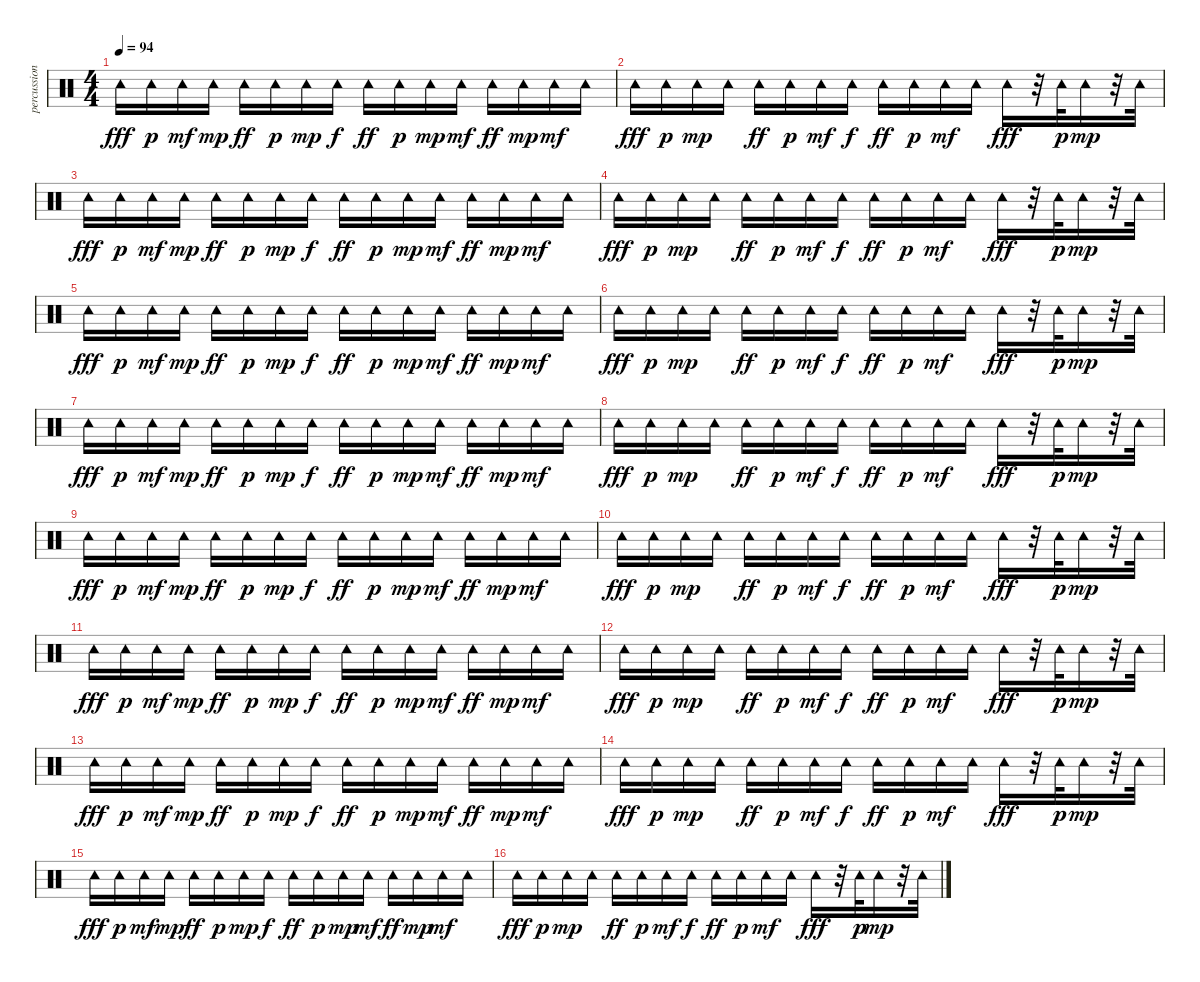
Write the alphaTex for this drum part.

\track ("percussion" "percussion") {instrument percussion}
\staff {score}
\articulation defaults
\ts (4 4)
\tempo 94
\clef neutral
\ks c "Tambourine (hit)".16{dy fff} "Tambourine (hit)".16{dy p} "Tambourine (hit)".16{dy mf} "Tambourine (hit)".16{dy mp} "Tambourine (hit)".16{dy ff} "Tambourine (hit)".16{dy p} "Tambourine (hit)".16{dy mp} "Tambourine (hit)".16{dy f} "Tambourine (hit)".16{dy ff} "Tambourine (hit)".16{dy p} "Tambourine (hit)".16{dy mp} "Tambourine (hit)".16{dy mf} "Tambourine (hit)".16{dy ff} "Tambourine (hit)".16{dy mp} "Tambourine (hit)".16{dy mf} "Tambourine (hit)".16
|
"Tambourine (hit)".16{dy fff} "Tambourine (hit)".16{dy p} "Tambourine (hit)".16{dy mp} "Tambourine (hit)".16 "Tambourine (hit)".16{dy ff} "Tambourine (hit)".16{dy p} "Tambourine (hit)".16{dy mf} "Tambourine (hit)".16{dy f} "Tambourine (hit)".16{dy ff} "Tambourine (hit)".16{dy p} "Tambourine (hit)".16{dy mf} "Tambourine (hit)".16 "Tambourine (hit)".16{dy fff} r.32 "Tambourine (hit)".32{dy p} "Tambourine (hit)".16{dy mp} r.32 "Tambourine (hit)".32 |
"Tambourine (hit)".16{dy fff} "Tambourine (hit)".16{dy p} "Tambourine (hit)".16{dy mf} "Tambourine (hit)".16{dy mp} "Tambourine (hit)".16{dy ff} "Tambourine (hit)".16{dy p} "Tambourine (hit)".16{dy mp} "Tambourine (hit)".16{dy f} "Tambourine (hit)".16{dy ff} "Tambourine (hit)".16{dy p} "Tambourine (hit)".16{dy mp} "Tambourine (hit)".16{dy mf} "Tambourine (hit)".16{dy ff} "Tambourine (hit)".16{dy mp} "Tambourine (hit)".16{dy mf} "Tambourine (hit)".16 |
"Tambourine (hit)".16{dy fff} "Tambourine (hit)".16{dy p} "Tambourine (hit)".16{dy mp} "Tambourine (hit)".16 "Tambourine (hit)".16{dy ff} "Tambourine (hit)".16{dy p} "Tambourine (hit)".16{dy mf} "Tambourine (hit)".16{dy f} "Tambourine (hit)".16{dy ff} "Tambourine (hit)".16{dy p} "Tambourine (hit)".16{dy mf} "Tambourine (hit)".16 "Tambourine (hit)".16{dy fff} r.32 "Tambourine (hit)".32{dy p} "Tambourine (hit)".16{dy mp} r.32 "Tambourine (hit)".32 |
"Tambourine (hit)".16{dy fff} "Tambourine (hit)".16{dy p} "Tambourine (hit)".16{dy mf} "Tambourine (hit)".16{dy mp} "Tambourine (hit)".16{dy ff} "Tambourine (hit)".16{dy p} "Tambourine (hit)".16{dy mp} "Tambourine (hit)".16{dy f} "Tambourine (hit)".16{dy ff} "Tambourine (hit)".16{dy p} "Tambourine (hit)".16{dy mp} "Tambourine (hit)".16{dy mf} "Tambourine (hit)".16{dy ff} "Tambourine (hit)".16{dy mp} "Tambourine (hit)".16{dy mf} "Tambourine (hit)".16 |
"Tambourine (hit)".16{dy fff} "Tambourine (hit)".16{dy p} "Tambourine (hit)".16{dy mp} "Tambourine (hit)".16 "Tambourine (hit)".16{dy ff} "Tambourine (hit)".16{dy p} "Tambourine (hit)".16{dy mf} "Tambourine (hit)".16{dy f} "Tambourine (hit)".16{dy ff} "Tambourine (hit)".16{dy p} "Tambourine (hit)".16{dy mf} "Tambourine (hit)".16 "Tambourine (hit)".16{dy fff} r.32 "Tambourine (hit)".32{dy p} "Tambourine (hit)".16{dy mp} r.32 "Tambourine (hit)".32 |
"Tambourine (hit)".16{dy fff} "Tambourine (hit)".16{dy p} "Tambourine (hit)".16{dy mf} "Tambourine (hit)".16{dy mp} "Tambourine (hit)".16{dy ff} "Tambourine (hit)".16{dy p} "Tambourine (hit)".16{dy mp} "Tambourine (hit)".16{dy f} "Tambourine (hit)".16{dy ff} "Tambourine (hit)".16{dy p} "Tambourine (hit)".16{dy mp} "Tambourine (hit)".16{dy mf} "Tambourine (hit)".16{dy ff} "Tambourine (hit)".16{dy mp} "Tambourine (hit)".16{dy mf} "Tambourine (hit)".16 |
"Tambourine (hit)".16{dy fff} "Tambourine (hit)".16{dy p} "Tambourine (hit)".16{dy mp} "Tambourine (hit)".16 "Tambourine (hit)".16{dy ff} "Tambourine (hit)".16{dy p} "Tambourine (hit)".16{dy mf} "Tambourine (hit)".16{dy f} "Tambourine (hit)".16{dy ff} "Tambourine (hit)".16{dy p} "Tambourine (hit)".16{dy mf} "Tambourine (hit)".16 "Tambourine (hit)".16{dy fff} r.32 "Tambourine (hit)".32{dy p} "Tambourine (hit)".16{dy mp} r.32 "Tambourine (hit)".32 |
"Tambourine (hit)".16{dy fff} "Tambourine (hit)".16{dy p} "Tambourine (hit)".16{dy mf} "Tambourine (hit)".16{dy mp} "Tambourine (hit)".16{dy ff} "Tambourine (hit)".16{dy p} "Tambourine (hit)".16{dy mp} "Tambourine (hit)".16{dy f} "Tambourine (hit)".16{dy ff} "Tambourine (hit)".16{dy p} "Tambourine (hit)".16{dy mp} "Tambourine (hit)".16{dy mf} "Tambourine (hit)".16{dy ff} "Tambourine (hit)".16{dy mp} "Tambourine (hit)".16{dy mf} "Tambourine (hit)".16 |
"Tambourine (hit)".16{dy fff} "Tambourine (hit)".16{dy p} "Tambourine (hit)".16{dy mp} "Tambourine (hit)".16 "Tambourine (hit)".16{dy ff} "Tambourine (hit)".16{dy p} "Tambourine (hit)".16{dy mf} "Tambourine (hit)".16{dy f} "Tambourine (hit)".16{dy ff} "Tambourine (hit)".16{dy p} "Tambourine (hit)".16{dy mf} "Tambourine (hit)".16 "Tambourine (hit)".16{dy fff} r.32 "Tambourine (hit)".32{dy p} "Tambourine (hit)".16{dy mp} r.32 "Tambourine (hit)".32 |
"Tambourine (hit)".16{dy fff} "Tambourine (hit)".16{dy p} "Tambourine (hit)".16{dy mf} "Tambourine (hit)".16{dy mp} "Tambourine (hit)".16{dy ff volume 15} "Tambourine (hit)".16{dy p} "Tambourine (hit)".16{dy mp volume 16} "Tambourine (hit)".16{dy f} "Tambourine (hit)".16{dy ff} "Tambourine (hit)".16{dy p} "Tambourine (hit)".16{dy mp} "Tambourine (hit)".16{dy mf} "Tambourine (hit)".16{dy ff volume 15} "Tambourine (hit)".16{dy mp volume 15} "Tambourine (hit)".16{dy mf} "Tambourine (hit)".16 |
"Tambourine (hit)".16{dy fff volume 15} "Tambourine (hit)".16{dy p} "Tambourine (hit)".16{dy mp} "Tambourine (hit)".16 "Tambourine (hit)".16{dy ff volume 14} "Tambourine (hit)".16{dy p volume 14} "Tambourine (hit)".16{dy mf volume 13} "Tambourine (hit)".16{dy f volume 13} "Tambourine (hit)".16{dy ff volume 13} "Tambourine (hit)".16{dy p volume 12} "Tambourine (hit)".16{dy mf volume 12} "Tambourine (hit)".16 "Tambourine (hit)".16{dy fff} r.32 "Tambourine (hit)".32{dy p volume 12} "Tambourine (hit)".16{dy mp volume 11} r.32 "Tambourine (hit)".32{volume 11} |
"Tambourine (hit)".16{dy fff} "Tambourine (hit)".16{dy p} "Tambourine (hit)".16{dy mf} "Tambourine (hit)".16{dy mp volume 10} "Tambourine (hit)".16{dy ff volume 10} "Tambourine (hit)".16{dy p volume 9} "Tambourine (hit)".16{dy mp volume 9} "Tambourine (hit)".16{dy f volume 8} "Tambourine (hit)".16{dy ff} "Tambourine (hit)".16{dy p} "Tambourine (hit)".16{dy mp volume 8} "Tambourine (hit)".16{dy mf volume 8} "Tambourine (hit)".16{dy ff} "Tambourine (hit)".16{dy mp volume 8} "Tambourine (hit)".16{dy mf} "Tambourine (hit)".16 |
"Tambourine (hit)".16{dy fff} "Tambourine (hit)".16{dy p volume 8} "Tambourine (hit)".16{dy mp volume 7} "Tambourine (hit)".16 "Tambourine (hit)".16{dy ff volume 7} "Tambourine (hit)".16{dy p} "Tambourine (hit)".16{dy mf} "Tambourine (hit)".16{dy f} "Tambourine (hit)".16{dy ff} "Tambourine (hit)".16{dy p} "Tambourine (hit)".16{dy mf volume 7} "Tambourine (hit)".16 "Tambourine (hit)".16{dy fff volume 7} r.32 "Tambourine (hit)".32{dy p} "Tambourine (hit)".16{dy mp} r.32 "Tambourine (hit)".32 |
"Tambourine (hit)".16{dy fff volume 7} "Tambourine (hit)".16{dy p volume 7} "Tambourine (hit)".16{dy mf volume 6} "Tambourine (hit)".16{dy mp} "Tambourine (hit)".16{dy ff} "Tambourine (hit)".16{dy p volume 6} "Tambourine (hit)".16{dy mp} "Tambourine (hit)".16{dy f volume 6} "Tambourine (hit)".16{dy ff} "Tambourine (hit)".16{dy p volume 6} "Tambourine (hit)".16{dy mp volume 6} "Tambourine (hit)".16{dy mf} "Tambourine (hit)".16{dy ff volume 6} "Tambourine (hit)".16{dy mp volume 5} "Tambourine (hit)".16{dy mf volume 6} "Tambourine (hit)".16{volume 5} |
"Tambourine (hit)".16{dy fff} "Tambourine (hit)".16{dy p volume 4} "Tambourine (hit)".16{dy mp} "Tambourine (hit)".16 "Tambourine (hit)".16{dy ff volume 4} "Tambourine (hit)".16{dy p volume 4} "Tambourine (hit)".16{dy mf} "Tambourine (hit)".16{dy f} "Tambourine (hit)".16{dy ff} "Tambourine (hit)".16{dy p} "Tambourine (hit)".16{dy mf} "Tambourine (hit)".16 "Tambourine (hit)".16{dy fff} r.32 "Tambourine (hit)".32{dy p volume 2} "Tambourine (hit)".16{dy mp} r.32 "Tambourine (hit)".32
